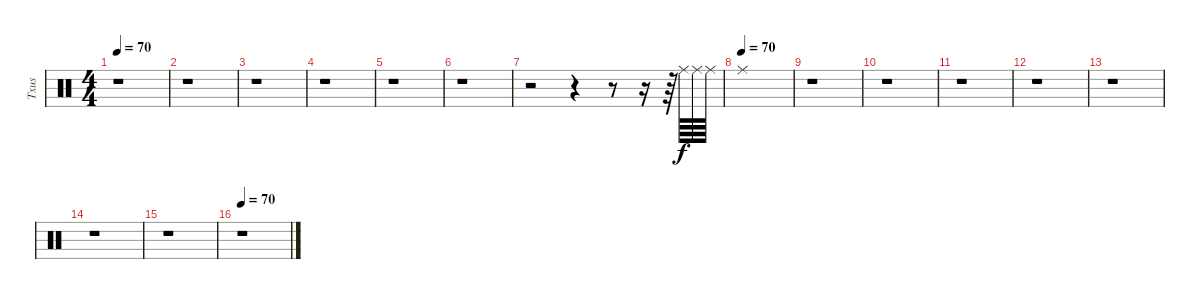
\track ("Txus" "Txus") {instrument percussion}
\staff {score}
\articulation defaults
\ts (4 4)
\tempo 70
\clef neutral
\ks c
r.1{dy f} |
r.1 |
r.1 |
r.1 |
r.1 |
r.1 |
r.2 r.4 r.8 r.16 r.64 "Ride (middle)".64 "Ride (middle)".64 "Ride (middle)".64 |
\tempo (70)
"Ride (middle)".1 |
r.1 |
r.1 |
r.1 |
r.1 |
r.1 |
r.1 |
r.1 |
\tempo 70
r.1
